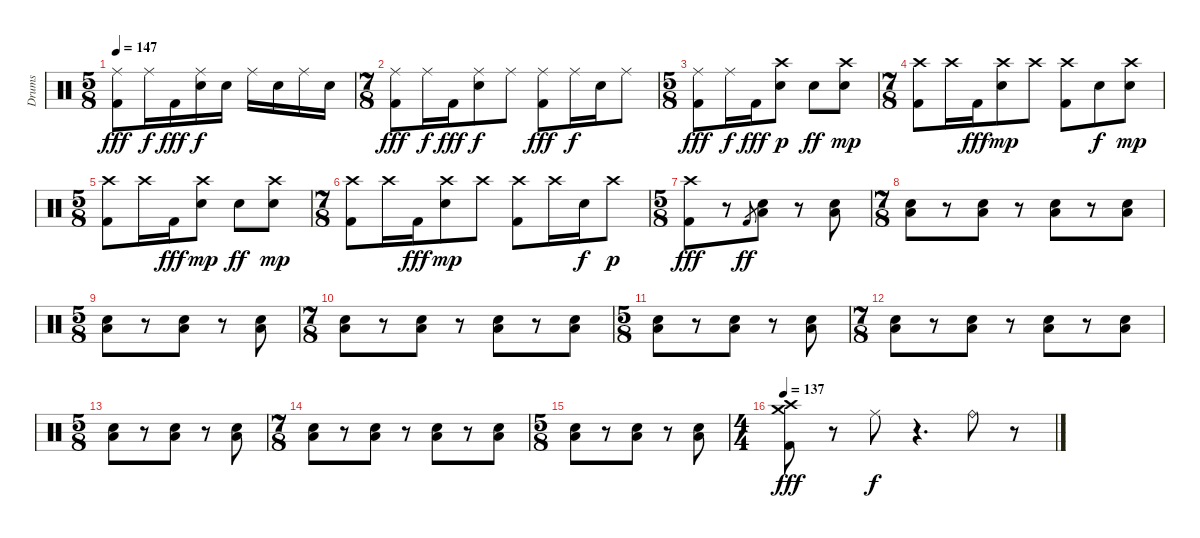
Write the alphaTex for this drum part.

\track ("Drums" "Drums") {instrument percussion}
\staff {score}
\articulation defaults
\ts (5 8)
\tempo 147
\clef neutral
\ks c
("Kick (hit) 2" "Ride (middle)").8{dy fff} "Ride (middle)".16{dy f} "Kick (hit) 2".16{dy fff} ("Snare (hit) 2" "Ride (middle)").16{dy f} "Snare (hit) 2".16 "Ride (middle)".16 "Snare (hit) 2".16 "Ride (middle)".16 "Snare (hit) 2".16 |
\ts (7 8)
("Kick (hit) 2" "Ride (middle)").8{dy fff} "Ride (middle)".16{dy f} "Kick (hit) 2".16{dy fff} ("Snare (hit) 2" "Ride (middle)").8{dy f} "Ride (middle)".8 ("Kick (hit) 2" "Ride (middle)").8{dy fff} "Ride (middle)".16{dy f} "Snare (hit) 2".16 "Ride (middle)".8 |
\ts (5 8)
("Kick (hit) 2" "Ride (middle)").8{dy fff} "Ride (middle)".16{dy f} "Kick (hit) 2".16{dy fff} ("Snare (hit) 2" "Crash high (hit)").8{dy p} "Snare (hit) 2".8{dy ff} ("Snare (hit) 2" "Crash high (hit)").8{dy mp} |
\ts (7 8)
("Kick (hit) 2" "Crash high (hit)").8 "Crash high (hit)".16 "Kick (hit) 2".16{dy fff} ("Snare (hit) 2" "Crash high (hit)").8{dy mp} "Crash high (hit)".8 ("Kick (hit) 2" "Crash high (hit)").8 "Snare (hit) 2".8{dy f} ("Snare (hit) 2" "Crash high (hit)").8{dy mp} |
\ts (5 8)
("Kick (hit) 2" "Crash high (hit)").8 "Crash high (hit)".16 "Kick (hit) 2".16{dy fff} ("Snare (hit) 2" "Crash high (hit)").8{dy mp} "Snare (hit) 2".8{dy ff} ("Snare (hit) 2" "Crash high (hit)").8{dy mp} |
\ts (7 8)
("Kick (hit) 2" "Crash high (hit)").8 "Crash high (hit)".16 "Kick (hit) 2".16{dy fff} ("Snare (hit) 2" "Crash high (hit)").8{dy mp} "Crash high (hit)".8 ("Kick (hit) 2" "Crash high (hit)").8 "Crash high (hit)".16 "Snare (hit) 2".16{dy f} "Crash high (hit)".8{dy p} |
\ts (5 8)
("Kick (hit) 2" "Crash high (hit)").8{dy fff} r.8 "Kick (hit) 2".8{gr dy ff} ("Snare (hit) 2" "Low Tom (hit)").8 r.8 ("Snare (hit) 2" "Low Tom (hit)").8 |
\ts (7 8)
("Snare (hit) 2" "Low Tom (hit)").8 r.8 ("Snare (hit) 2" "Low Tom (hit)").8 r.8 ("Snare (hit) 2" "Low Tom (hit)").8 r.8 ("Snare (hit) 2" "Low Tom (hit)").8 |
\ts (5 8)
("Snare (hit) 2" "Low Tom (hit)").8 r.8 ("Snare (hit) 2" "Low Tom (hit)").8 r.8 ("Snare (hit) 2" "Low Tom (hit)").8 |
\ts (7 8)
("Snare (hit) 2" "Low Tom (hit)").8 r.8 ("Snare (hit) 2" "Low Tom (hit)").8 r.8 ("Snare (hit) 2" "Low Tom (hit)").8 r.8 ("Snare (hit) 2" "Low Tom (hit)").8 |
\ts (5 8)
("Snare (hit) 2" "Low Tom (hit)").8 r.8 ("Snare (hit) 2" "Low Tom (hit)").8 r.8 ("Snare (hit) 2" "Low Tom (hit)").8 |
\ts (7 8)
("Snare (hit) 2" "Low Tom (hit)").8 r.8 ("Snare (hit) 2" "Low Tom (hit)").8 r.8 ("Snare (hit) 2" "Low Tom (hit)").8 r.8 ("Snare (hit) 2" "Low Tom (hit)").8 |
\ts (5 8)
("Snare (hit) 2" "Low Tom (hit)").8 r.8 ("Snare (hit) 2" "Low Tom (hit)").8 r.8 ("Snare (hit) 2" "Low Tom (hit)").8 |
\ts (7 8)
("Snare (hit) 2" "Low Tom (hit)").8 r.8 ("Snare (hit) 2" "Low Tom (hit)").8 r.8 ("Snare (hit) 2" "Low Tom (hit)").8 r.8 ("Snare (hit) 2" "Low Tom (hit)").8 |
\ts (5 8)
("Snare (hit) 2" "Low Tom (hit)").8 r.8 ("Snare (hit) 2" "Low Tom (hit)").8 r.8 ("Snare (hit) 2" "Low Tom (hit)").8 |
\ts (4 4)
\tempo 137
("Kick (hit) 2" "Crash high (hit)" "Crash medium (hit)").8{dy fff} r.8 "Ride (middle)".8{dy f} r.4{d} "Ride (bell)".8 r.8
